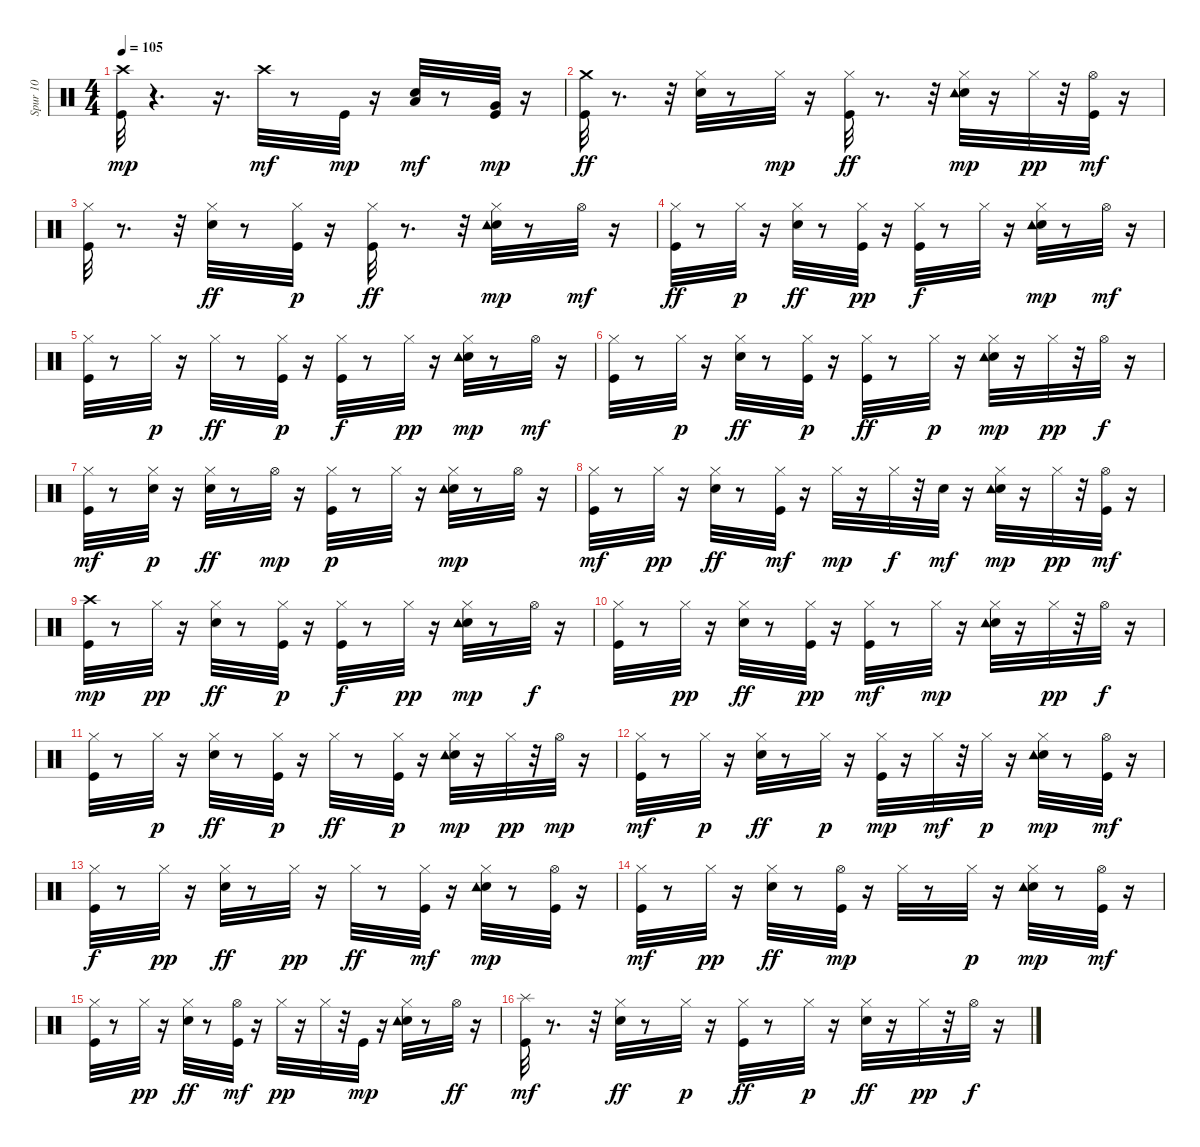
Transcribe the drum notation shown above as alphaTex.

\track ("Spur 10" "Spur 10") {instrument percussion}
\staff {score}
\articulation defaults
\ts (4 4)
\tempo 105
\clef neutral
\ks c
("Kick (hit)" "Crash high (hit)").32{dy mp} r.4{d} r.16{d} "Crash high (hit)".32{dy mf} r.8 "Kick (hit)".32{dy mp} r.16 ("Snare (hit) 2" "Low Tom (hit)").32{dy mf} r.8 ("Kick (hit)" "Very Low Tom (hit)").32{dy mp} r.16 |
("Kick (hit)" "Crash medium (hit)").32{dy ff} r.8{d} r.32 ("Snare (hit) 2" "Hi-Hat (closed)").32 r.8 "Hi-Hat (closed)".32{dy mp} r.16 ("Kick (hit)" "Hi-Hat (closed)").32{dy ff} r.8{d} r.32 ("Snare (hit) 2" "Hi-Hat (closed)" "Tambourine (hit)").32{dy mp} r.16 "Hi-Hat (closed)".32{dy pp} r.32 ("Kick (hit)" "Hi-Hat (open)").32{dy mf} r.16 |
("Kick (hit)" "Hi-Hat (closed)").32 r.8{d} r.32 ("Snare (hit) 2" "Hi-Hat (closed)").32{dy ff} r.8 ("Kick (hit)" "Hi-Hat (closed)").32{dy p} r.16 ("Kick (hit)" "Hi-Hat (closed)").32{dy ff} r.8{d} r.32 ("Snare (hit) 2" "Hi-Hat (closed)" "Tambourine (hit)").32{dy mp} r.8 "Hi-Hat (open)".32{dy mf} r.16 |
("Kick (hit)" "Hi-Hat (closed)").32{dy ff} r.8 "Hi-Hat (closed)".32{dy p} r.16 ("Snare (hit) 2" "Hi-Hat (closed)").32{dy ff} r.8 ("Kick (hit)" "Hi-Hat (closed)").32{dy pp} r.16 ("Kick (hit)" "Hi-Hat (closed)").32{dy f} r.8 "Hi-Hat (closed)".32 r.16 ("Snare (hit) 2" "Hi-Hat (closed)" "Tambourine (hit)").32{dy mp} r.8 "Hi-Hat (open)".32{dy mf} r.16 |
("Kick (hit)" "Hi-Hat (closed)").32 r.8 "Hi-Hat (closed)".32{dy p} r.16 "Hi-Hat (closed)".32{dy ff} r.8 ("Kick (hit)" "Hi-Hat (closed)").32{dy p} r.16 ("Kick (hit)" "Hi-Hat (closed)").32{dy f} r.8 "Hi-Hat (closed)".32{dy pp} r.16 ("Snare (hit) 2" "Hi-Hat (closed)" "Tambourine (hit)").32{dy mp} r.8 "Hi-Hat (open)".32{dy mf} r.16 |
("Kick (hit)" "Hi-Hat (closed)").32 r.8 "Hi-Hat (closed)".32{dy p} r.16 ("Snare (hit) 2" "Hi-Hat (closed)").32{dy ff} r.8 ("Kick (hit)" "Hi-Hat (closed)").32{dy p} r.16 ("Kick (hit)" "Hi-Hat (closed)").32{dy ff} r.8 "Hi-Hat (closed)".32{dy p} r.16 ("Snare (hit) 2" "Hi-Hat (closed)" "Tambourine (hit)").32{dy mp} r.16 "Hi-Hat (closed)".32{dy pp} r.32 "Hi-Hat (open)".32{dy f} r.16 |
("Kick (hit)" "Hi-Hat (closed)").32{dy mf} r.8 ("Snare (hit) 2" "Hi-Hat (closed)").32{dy p} r.16 ("Snare (hit) 2" "Hi-Hat (closed)").32{dy ff} r.8 "Hi-Hat (open)".32{dy mp} r.16 ("Kick (hit)" "Hi-Hat (closed)").32{dy p} r.8 "Hi-Hat (closed)".32 r.16 ("Snare (hit) 2" "Hi-Hat (closed)" "Tambourine (hit)").32{dy mp} r.8 "Hi-Hat (open)".32 r.16 |
("Kick (hit)" "Hi-Hat (closed)").32{dy mf} r.8 "Hi-Hat (closed)".32{dy pp} r.16 ("Snare (hit) 2" "Hi-Hat (closed)").32{dy ff} r.8 ("Kick (hit)" "Hi-Hat (closed)").32{dy mf} r.16 "Hi-Hat (closed)".32{dy mp} r.16 "Hi-Hat (closed)".32{dy f} r.32 "Snare (hit) 2".32{dy mf} r.16 ("Snare (hit) 2" "Hi-Hat (closed)" "Tambourine (hit)").32{dy mp} r.16 "Hi-Hat (closed)".32{dy pp} r.32 ("Kick (hit)" "Hi-Hat (open)").32{dy mf} r.16 |
("Kick (hit)" "Crash high (hit)").32{dy mp} r.8 "Hi-Hat (closed)".32{dy pp} r.16 ("Snare (hit) 2" "Hi-Hat (closed)").32{dy ff} r.8 ("Kick (hit)" "Hi-Hat (closed)").32{dy p} r.16 ("Kick (hit)" "Hi-Hat (closed)").32{dy f} r.8 "Hi-Hat (closed)".32{dy pp} r.16 ("Snare (hit) 2" "Hi-Hat (closed)" "Tambourine (hit)").32{dy mp} r.8 "Hi-Hat (open)".32{dy f} r.16 |
("Kick (hit)" "Hi-Hat (closed)").32 r.8 "Hi-Hat (closed)".32{dy pp} r.16 ("Snare (hit) 2" "Hi-Hat (closed)").32{dy ff} r.8 ("Kick (hit)" "Hi-Hat (closed)").32{dy pp} r.16 ("Kick (hit)" "Hi-Hat (closed)").32{dy mf} r.8 "Hi-Hat (closed)".32{dy mp} r.16 ("Snare (hit) 2" "Hi-Hat (closed)" "Tambourine (hit)").32 r.16 "Hi-Hat (closed)".32{dy pp} r.32 "Hi-Hat (open)".32{dy f} r.16 |
("Kick (hit)" "Hi-Hat (closed)").32 r.8 "Hi-Hat (closed)".32{dy p} r.16 ("Snare (hit) 2" "Hi-Hat (closed)").32{dy ff} r.8 ("Kick (hit)" "Hi-Hat (closed)").32{dy p} r.16 "Hi-Hat (closed)".32{dy ff} r.8 ("Kick (hit)" "Hi-Hat (closed)").32{dy p} r.16 ("Snare (hit) 2" "Hi-Hat (closed)" "Tambourine (hit)").32{dy mp} r.16 "Hi-Hat (closed)".32{dy pp} r.32 "Hi-Hat (open)".32{dy mp} r.16 |
("Kick (hit)" "Hi-Hat (closed)").32{dy mf} r.8 "Hi-Hat (closed)".32{dy p} r.16 ("Snare (hit) 2" "Hi-Hat (closed)").32{dy ff} r.8 "Hi-Hat (closed)".32{dy p} r.16 ("Kick (hit)" "Hi-Hat (closed)").32{dy mp} r.16 "Hi-Hat (closed)".32{dy mf} r.32 "Hi-Hat (closed)".32{dy p} r.16 ("Snare (hit) 2" "Hi-Hat (closed)" "Tambourine (hit)").32{dy mp} r.8 ("Kick (hit)" "Hi-Hat (open)").32{dy mf} r.16 |
("Kick (hit)" "Hi-Hat (closed)").32{dy f} r.8 "Hi-Hat (closed)".32{dy pp} r.16 ("Snare (hit) 2" "Hi-Hat (closed)").32{dy ff} r.8 "Hi-Hat (closed)".32{dy pp} r.16 "Hi-Hat (closed)".32{dy ff} r.8 ("Kick (hit)" "Hi-Hat (closed)").32{dy mf} r.16 ("Snare (hit) 2" "Hi-Hat (closed)" "Tambourine (hit)").32{dy mp} r.8 ("Kick (hit)" "Hi-Hat (open)").32 r.16 |
("Kick (hit)" "Hi-Hat (closed)").32{dy mf} r.8 "Hi-Hat (closed)".32{dy pp} r.16 ("Snare (hit) 2" "Hi-Hat (closed)").32{dy ff} r.8 ("Kick (hit)" "Hi-Hat (open)").32{dy mp} r.16 "Hi-Hat (closed)".32 r.8 "Hi-Hat (closed)".32{dy p} r.16 ("Snare (hit) 2" "Hi-Hat (closed)" "Tambourine (hit)").32{dy mp} r.8 ("Kick (hit)" "Hi-Hat (open)").32{dy mf} r.16 |
("Kick (hit)" "Hi-Hat (closed)").32 r.8 "Hi-Hat (closed)".32{dy pp} r.16 ("Snare (hit) 2" "Hi-Hat (closed)").32{dy ff} r.8 ("Kick (hit)" "Hi-Hat (open)").32{dy mf} r.16 "Hi-Hat (closed)".32{dy pp} r.16 "Hi-Hat (closed)".32 r.32 "Kick (hit)".32{dy mp} r.16 ("Snare (hit) 2" "Hi-Hat (closed)" "Tambourine (hit)").32 r.8 "Hi-Hat (open)".32{dy ff} r.16 |
("Kick (hit)" "Splash (hit)").32{dy mf} r.8{d} r.32 ("Snare (hit) 2" "Hi-Hat (closed)").32{dy ff} r.8 "Hi-Hat (closed)".32{dy p} r.16 ("Kick (hit)" "Hi-Hat (closed)").32{dy ff} r.8 "Hi-Hat (closed)".32{dy p} r.16 ("Snare (hit) 2" "Hi-Hat (closed)").32{dy ff} r.16 "Hi-Hat (closed)".32{dy pp} r.32 "Hi-Hat (open)".32{dy f} r.16
